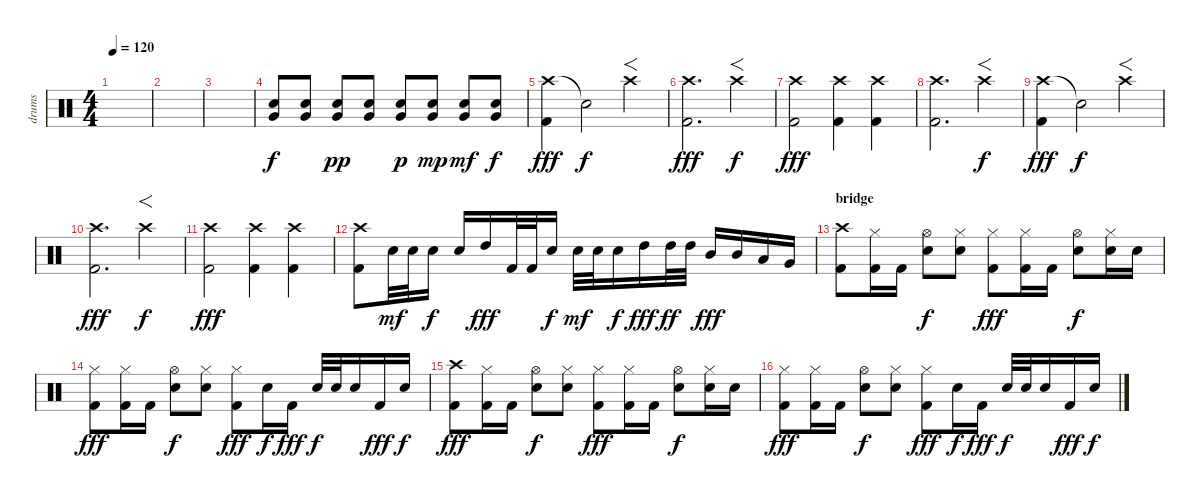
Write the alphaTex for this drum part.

\track ("drums" "drums") {instrument percussion}
\staff {score}
\articulation defaults
\ts (4 4)
\tempo 120
\clef neutral
\ks c
|
|
|
("Snare (hit) 2" "Very Low Tom (hit)").8 ("Snare (hit) 2" "Very Low Tom (hit)").8 ("Snare (hit) 2" "Very Low Tom (hit)").8{dy pp} ("Snare (hit) 2" "Very Low Tom (hit)").8 ("Snare (hit) 2" "Very Low Tom (hit)").8{dy p} ("Snare (hit) 2" "Very Low Tom (hit)").8{dy mp} ("Snare (hit) 2" "Very Low Tom (hit)").8{dy mf} ("Snare (hit) 2" "Very Low Tom (hit)").8{dy f} |
("Crash high (hit)" "Kick (hit) 2").4{dy fff} "Snare (hit)"{t}.2{dy f} "Crash high (hit)".4{f} |
("Crash high (hit)" "Kick (hit) 2").2{d dy fff} "Crash high (hit)".4{f dy f} |
("Crash high (hit)" "Kick (hit) 2").2{dy fff} ("Crash high (hit)" "Kick (hit) 2").4 ("Crash high (hit)" "Kick (hit) 2").4 |
("Crash high (hit)" "Kick (hit) 2").2{d} "Crash high (hit)".4{f dy f} |
("Crash high (hit)" "Kick (hit) 2").4{dy fff} "Snare (hit)"{t}.2{dy f} "Crash high (hit)".4{f} |
("Crash high (hit)" "Kick (hit) 2").2{d dy fff} "Crash high (hit)".4{f dy f} |
("Crash high (hit)" "Kick (hit) 2").2{dy fff} ("Crash high (hit)" "Kick (hit) 2").4 ("Crash high (hit)" "Kick (hit) 2").4 |
("Crash high (hit)" "Kick (hit) 2").8 "Snare (hit) 2".32{dy mf} "Snare (hit) 2".32 "Snare (hit) 2".16{dy f} "Snare (hit) 2".16 "High Tom (hit)".16{dy fff} "Kick (hit) 2".32 "Kick (hit) 2".32 "Snare (hit) 2".16{dy f} "Snare (hit) 2".32{dy mf} "Snare (hit) 2".32 "Snare (hit) 2".16{dy f} "High Tom (hit)".16{dy fff} "High Tom (hit)".32{dy ff} "High Tom (hit)".32 "Mid Tom (hit)".16{dy fff} "Mid Tom (hit)".16 "Low Tom (hit)".16 "Very Low Tom (hit)".16 |
\section ("" "bridge")
("Crash high (hit)" "Kick (hit) 2").8 ("Hi-Hat (closed)" "Kick (hit) 2").16 "Kick (hit) 2".16 ("Hi-Hat (open)" "Snare (hit) 2").8{dy f} ("Hi-Hat (closed)" "Snare (hit) 2").8 ("Hi-Hat (closed)" "Kick (hit) 2").8{dy fff} ("Hi-Hat (closed)" "Kick (hit) 2").16 "Kick (hit) 2".16 ("Hi-Hat (open)" "Snare (hit) 2").8{dy f} ("Hi-Hat (closed)" "Snare (hit) 2").16 "Snare (hit) 2".16 |
("Hi-Hat (closed)" "Kick (hit) 2").8{dy fff} ("Hi-Hat (closed)" "Kick (hit) 2").16 "Kick (hit) 2".16 ("Hi-Hat (open)" "Snare (hit) 2").8{dy f} ("Hi-Hat (closed)" "Snare (hit) 2").8 ("Hi-Hat (closed)" "Kick (hit) 2").8{dy fff} "Snare (hit) 2".16{dy f} "Kick (hit) 2".16{dy fff} "Snare (hit) 2".32{dy f} "Snare (hit) 2".32 "Snare (hit) 2".16 "Kick (hit) 2".16{dy fff} "Snare (hit) 2".16{dy f} |
("Crash high (hit)" "Kick (hit) 2").8{dy fff} ("Hi-Hat (closed)" "Kick (hit) 2").16 "Kick (hit) 2".16 ("Hi-Hat (open)" "Snare (hit) 2").8{dy f} ("Hi-Hat (closed)" "Snare (hit) 2").8 ("Hi-Hat (closed)" "Kick (hit) 2").8{dy fff} ("Hi-Hat (closed)" "Kick (hit) 2").16 "Kick (hit) 2".16 ("Hi-Hat (open)" "Snare (hit) 2").8{dy f} ("Hi-Hat (closed)" "Snare (hit) 2").16 "Snare (hit) 2".16 |
("Hi-Hat (closed)" "Kick (hit) 2").8{dy fff} ("Hi-Hat (closed)" "Kick (hit) 2").16 "Kick (hit) 2".16 ("Hi-Hat (open)" "Snare (hit) 2").8{dy f} ("Hi-Hat (closed)" "Snare (hit) 2").8 ("Hi-Hat (closed)" "Kick (hit) 2").8{dy fff} "Snare (hit) 2".16{dy f} "Kick (hit) 2".16{dy fff} "Snare (hit) 2".32{dy f} "Snare (hit) 2".32 "Snare (hit) 2".16 "Kick (hit) 2".16{dy fff} "Snare (hit) 2".16{dy f}
